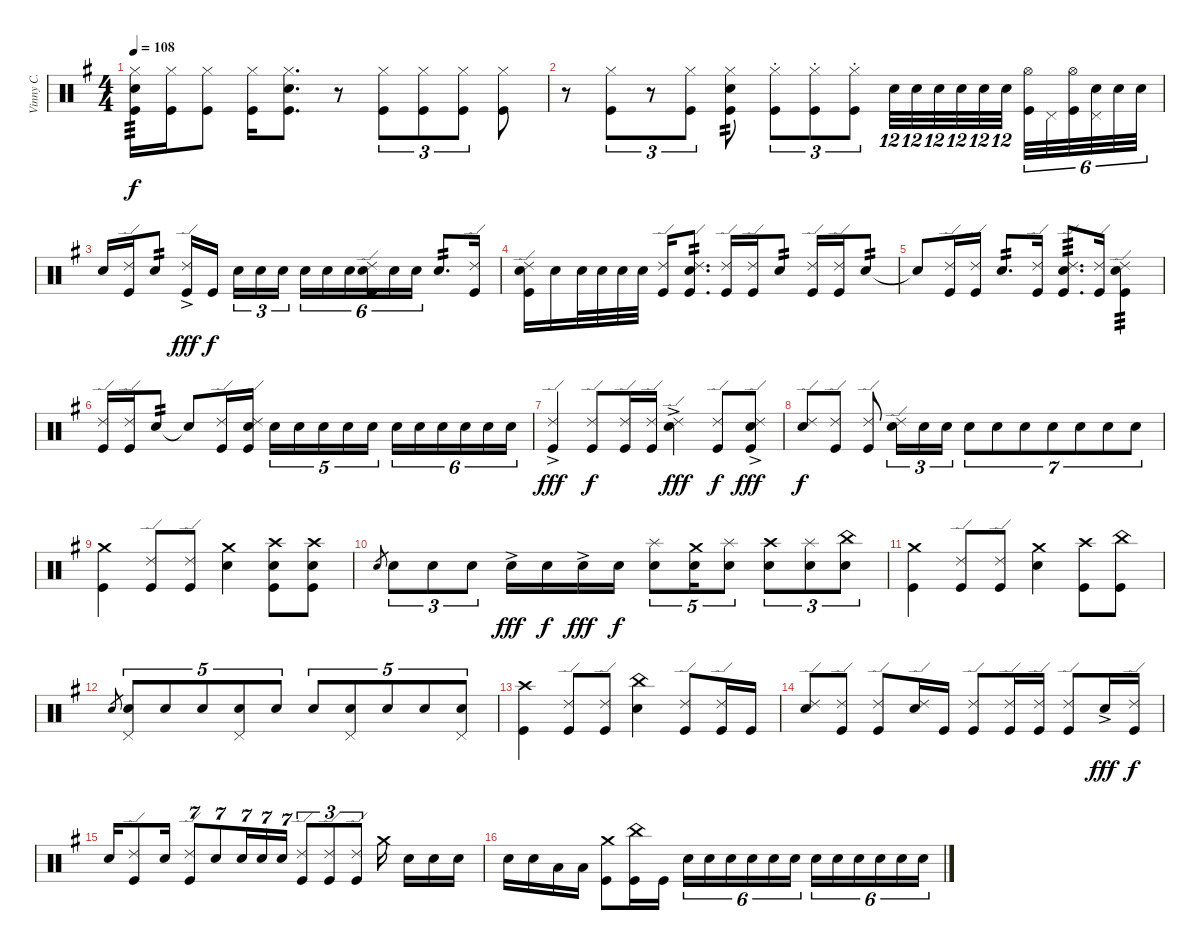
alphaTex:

\track ("Vinny C." "Vinny C.") {instrument percussion}
\staff {score}
\articulation defaults
\ts (4 4)
\tempo 108
\clef neutral
\ks g
("Hi-Hat (closed)" "Electric Snare (hit)" "Kick (hit)").16{tp 3 dy f} ("Hi-Hat (closed)" "Kick (hit)").16 ("Hi-Hat (closed)" "Kick (hit)").8 ("Hi-Hat (closed)" "Kick (hit)").16 ("Hi-Hat (closed)" "Electric Snare (hit)" "Kick (hit)").8{d} r.8 ("Hi-Hat (closed)" "Kick (hit)").8{tu (3 2)} ("Hi-Hat (closed)" "Kick (hit)").8{tu (3 2)} ("Hi-Hat (closed)" "Kick (hit)").8{tu (3 2)} ("Hi-Hat (closed)" "Kick (hit)").8 |
r.8 ("Hi-Hat (closed)" "Kick (hit)").8{tu (3 2)} r.8{tu (3 2)} ("Hi-Hat (closed)" "Kick (hit)").8{tu (3 2)} ("Hi-Hat (closed)" "Electric Snare (hit)" "Kick (hit)").8{tp 2} ("Hi-Hat (closed)"{st} "Kick (hit)").8{tu (3 2)} ("Hi-Hat (closed)"{st} "Kick (hit)").8{tu (3 2)} ("Hi-Hat (closed)"{st} "Kick (hit)").8{tu (3 2)} "Electric Snare (hit)".32{tu (12 8)} "Electric Snare (hit)".32{tu (12 8)} "Electric Snare (hit)".32{tu (12 8)} "Electric Snare (hit)".32{tu (12 8)} "Electric Snare (hit)".32{tu (12 8)} "Electric Snare (hit)".32{tu (12 8)} ("Hi-Hat (open)" "Kick (hit)").32{tu (6 4)} "Pedal Hi-Hat (hit)".32{tu (6 4)} ("Hi-Hat (open)" "Kick (hit)").32{tu (6 4)} ("Pedal Hi-Hat (hit)" "Electric Snare (hit)").32{tu (6 4)} "Electric Snare (hit)".32{tu (6 4)} "Electric Snare (hit)".32{tu (6 4)} |
"Electric Snare (hit)".16 ("Ride (edge) 2" "Kick (hit)").16 "Electric Snare (hit)".8{tp 2} ("Ride (edge) 2"{ac} "Kick (hit)").16{dy fff} "Kick (hit)".16{dy f} "Electric Snare (hit)".16{tu (3 2)} "Electric Snare (hit)".16{tu (3 2)} "Electric Snare (hit)".16{tu (3 2)} "Electric Snare (hit)".16{tu (6 4)} "Electric Snare (hit)".16{tu (6 4)} "Electric Snare (hit)".16{tu (6 4)} ("Ride (edge) 2" "Electric Snare (hit)" "Kick (hit)").16{tu (6 4)} "Electric Snare (hit)".16{tu (6 4)} "Electric Snare (hit)".16{tu (6 4)} "Electric Snare (hit)".8{d tp 2} ("Ride (edge) 2" "Kick (hit)").16 |
("Ride (edge) 2" "Electric Snare (hit)" "Kick (hit)").16 "Electric Snare (hit)".16 "Electric Snare (hit)".32 "Electric Snare (hit)".32 "Electric Snare (hit)".32 "Electric Snare (hit)".32 ("Ride (edge) 2" "Kick (hit)").16 ("Ride (edge) 2" "Electric Snare (hit)" "Kick (hit)").8{d tp 2} ("Ride (edge) 2" "Kick (hit)").16 ("Ride (edge) 2" "Kick (hit)").16 "Electric Snare (hit)".8{tp 2} ("Ride (edge) 2" "Kick (hit)").16 ("Ride (edge) 2" "Kick (hit)").16 "Electric Snare (hit)".8{tp 2} |
"Electric Snare (hit)"{t}.8 ("Ride (edge) 2" "Kick (hit)").16 ("Ride (edge) 2" "Kick (hit)").16 "Electric Snare (hit)".8{d tp 2} ("Ride (edge) 2" "Kick (hit)").16 ("Ride (edge) 2" "Electric Snare (hit)" "Kick (hit)").8{d tp 3} ("Ride (edge) 2" "Kick (hit)").16 ("Ride (edge) 2" "Electric Snare (hit)" "Kick (hit)").4{tp 3} |
("Ride (edge) 2" "Kick (hit)").16 ("Ride (edge) 2" "Kick (hit)").16 "Electric Snare (hit)".8{tp 2} "Electric Snare (hit)"{t}.8 ("Ride (edge) 2" "Kick (hit)").16 ("Ride (edge) 2" "Electric Snare (hit)" "Kick (hit)").16 "Electric Snare (hit)".16{tu (5 4)} "Electric Snare (hit)".16{tu (5 4)} "Electric Snare (hit)".16{tu (5 4)} "Electric Snare (hit)".16{tu (5 4)} "Electric Snare (hit)".16{tu (5 4)} "Electric Snare (hit)".16{tu (6 4)} "Electric Snare (hit)".16{tu (6 4)} "Electric Snare (hit)".16{tu (6 4)} "Electric Snare (hit)".16{tu (6 4)} "Electric Snare (hit)".16{tu (6 4)} "Electric Snare (hit)".16{tu (6 4)} |
("Ride (edge) 2"{ac} "Kick (hit)").4{dy fff} ("Ride (edge) 2" "Kick (hit)").8{dy f} ("Ride (edge) 2" "Kick (hit)").16 ("Ride (edge) 2" "Kick (hit)").16 ("Ride (edge) 2"{ac} "Electric Snare (hit)").4{dy fff} ("Ride (edge) 2" "Kick (hit)").8{dy f} ("Ride (edge) 2"{ac} "Electric Snare (hit)" "Kick (hit)").8{dy fff} |
("Ride (edge) 2" "Electric Snare (hit)").8{dy f} ("Ride (edge) 2" "Kick (hit)").8 ("Ride (edge) 2" "Kick (hit)").8 ("Ride (edge) 2" "Electric Snare (hit)").16{tu (3 2)} "Electric Snare (hit)".16{tu (3 2)} "Electric Snare (hit)".16{tu (3 2)} "Electric Snare (hit)".8{tu (7 4)} "Electric Snare (hit)".8{tu (7 4)} "Electric Snare (hit)".8{tu (7 4)} "Electric Snare (hit)".8{tu (7 4)} "Electric Snare (hit)".8{tu (7 4)} "Electric Snare (hit)".8{tu (7 4)} "Electric Snare (hit)".8{tu (7 4)} |
("Crash medium (hit)" "Kick (hit)").4 ("Ride (edge) 2" "Kick (hit)").8 ("Ride (edge) 2" "Kick (hit)").8 ("Crash medium (hit)" "Electric Snare (hit)").4 ("Crash high (hit)" "Electric Snare (hit)" "Kick (hit)").8 ("Crash high (hit)" "Electric Snare (hit)" "Kick (hit)").8 |
"Electric Snare (hit)".8{gr} "Electric Snare (hit)".8{tu (3 2)} "Electric Snare (hit)".8{tu (3 2)} "Electric Snare (hit)".8{tu (3 2)} "Electric Snare (hit)"{ac}.16{dy fff} "Electric Snare (hit)".16{dy f} "Electric Snare (hit)"{ac}.16{dy fff} "Electric Snare (hit)".16{dy f} ("Splash (hit)" "Electric Snare (hit)").8{tu (5 4)} ("Crash medium (hit)" "Electric Snare (hit)").16{tu (5 4)} ("Splash (hit)" "Electric Snare (hit)").8{tu (5 4)} ("Crash high (hit)" "Electric Snare (hit)").8{tu (3 2)} ("Splash (hit)" "Electric Snare (hit)").8{tu (3 2)} ("China (hit)" "Electric Snare (hit)").8{tu (3 2)} |
("Crash medium (hit)" "Kick (hit)").4 ("Ride (edge) 2" "Kick (hit)").8 ("Ride (edge) 2" "Kick (hit)").8 ("Crash medium (hit)" "Electric Snare (hit)").4 ("Crash high (hit)" "Kick (hit)").8 ("China (hit)" "Kick (hit)").8 |
"Electric Snare (hit)".8{gr} ("Pedal Hi-Hat (hit)" "Electric Snare (hit)").8{tu (5 4)} "Electric Snare (hit)".8{tu (5 4)} "Electric Snare (hit)".8{tu (5 4)} ("Pedal Hi-Hat (hit)" "Electric Snare (hit)").8{tu (5 4)} "Electric Snare (hit)".8{tu (5 4)} "Electric Snare (hit)".8{tu (5 4)} ("Pedal Hi-Hat (hit)" "Electric Snare (hit)").8{tu (5 4)} "Electric Snare (hit)".8{tu (5 4)} "Electric Snare (hit)".8{tu (5 4)} ("Pedal Hi-Hat (hit)" "Electric Snare (hit)").8{tu (5 4)} |
("Crash high (hit)" "Kick (hit)").4 ("Ride (edge) 2" "Kick (hit)").8 ("Ride (edge) 2" "Kick (hit)").8 ("China (hit)" "Electric Snare (hit)").4 ("Ride (edge) 2" "Kick (hit)").8 ("Ride (edge) 2" "Kick (hit)").16 "Kick (hit)".16 |
("Ride (edge) 2" "Electric Snare (hit)").8 ("Ride (edge) 2" "Kick (hit)").8 ("Ride (edge) 2" "Kick (hit)").8 ("Ride (edge) 2" "Electric Snare (hit)").16 "Kick (hit)".16 ("Ride (edge) 2" "Kick (hit)").8 ("Ride (edge) 2" "Kick (hit)").16 ("Ride (edge) 2" "Kick (hit)").16 ("Ride (edge) 2" "Kick (hit)").8 "Electric Snare (hit)"{ac}.16{dy fff} ("Ride (edge) 2" "Kick (hit)").16{dy f} |
"Electric Snare (hit)".16 ("Ride (edge) 2" "Kick (hit)").8 "Electric Snare (hit)".16 ("Ride (edge) 2" "Kick (hit)").8{tu (7 4)} "Electric Snare (hit)".8{tu (7 4)} "Electric Snare (hit)".16{tu (7 4)} "Electric Snare (hit)".16{tu (7 4)} "Electric Snare (hit)".16{tu (7 4)} ("Ride (edge) 2" "Kick (hit)").8{tu (3 2)} ("Ride (edge) 2" "Kick (hit)").8{tu (3 2)} ("Ride (edge) 2" "Kick (hit)").8{tu (3 2)} "Crash medium (hit)".16 "Electric Snare (hit)".16 "Electric Snare (hit)".16 "Electric Snare (hit)".16 |
"Electric Snare (hit)".16 "Electric Snare (hit)".16 "Low Tom (hit)".16 "Low Tom (hit)".16 ("Crash medium (hit)" "Kick (hit)").8 ("China (hit)" "Kick (hit)").16 "Kick (hit)".16 "Electric Snare (hit)".16{tu (6 4)} "Electric Snare (hit)".16{tu (6 4)} "Electric Snare (hit)".16{tu (6 4)} "Electric Snare (hit)".16{tu (6 4)} "Electric Snare (hit)".16{tu (6 4)} "Electric Snare (hit)".16{tu (6 4)} "Electric Snare (hit)".16{tu (6 4)} "Electric Snare (hit)".16{tu (6 4)} "Electric Snare (hit)".16{tu (6 4)} "Electric Snare (hit)".16{tu (6 4)} "Electric Snare (hit)".16{tu (6 4)} "Electric Snare (hit)".16{tu (6 4)}
